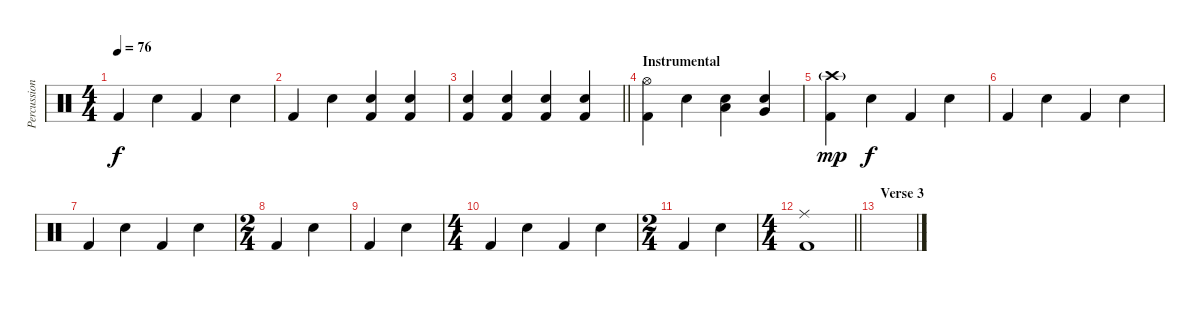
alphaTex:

\track ("Percussion" "Percussion") {instrument percussion}
\staff {score}
\articulation defaults
\ts (4 4)
\tempo 76
\clef neutral
\ks c "Kick (hit) 2".4{dy f} "Snare (hit) 2".4 "Kick (hit) 2".4 "Snare (hit) 2".4
|
"Kick (hit) 2".4 "Snare (hit) 2".4 ("Snare (hit) 2" "Kick (hit) 2").4 ("Snare (hit) 2" "Kick (hit) 2").4 |
\barLineRight lightlight
("Snare (hit) 2" "Kick (hit) 2").4 ("Snare (hit) 2" "Kick (hit) 2").4 ("Snare (hit) 2" "Kick (hit) 2").4 ("Snare (hit) 2" "Kick (hit) 2").4 |
\section ("" "Instrumental")
("Hi-Hat (open)" "Kick (hit) 2").4 "Snare (hit) 2".4 ("Snare (hit) 2" "Low Tom (hit)").4 ("Snare (hit) 2" "Very Low Tom (hit)").4 |
("Crash high (hit)"{g} "Kick (hit) 2").4{dy mp} "Snare (hit) 2".4{dy f} "Kick (hit) 2".4 "Snare (hit) 2".4 |
"Kick (hit) 2".4 "Snare (hit) 2".4 "Kick (hit) 2".4 "Snare (hit) 2".4 |
"Kick (hit) 2".4 "Snare (hit) 2".4 "Kick (hit) 2".4 "Snare (hit) 2".4 |
\ts (2 4)
"Kick (hit) 2".4 "Snare (hit) 2".4 |
"Kick (hit) 2".4 "Snare (hit) 2".4 |
\ts (4 4)
"Kick (hit) 2".4 "Snare (hit) 2".4 "Kick (hit) 2".4 "Snare (hit) 2".4 |
\ts (2 4)
"Kick (hit) 2".4 "Snare (hit) 2".4 |
\ts (4 4)
\barLineRight lightlight
("Ride (middle)" "Kick (hit) 2").1 |
\section ("" "Verse 3")
